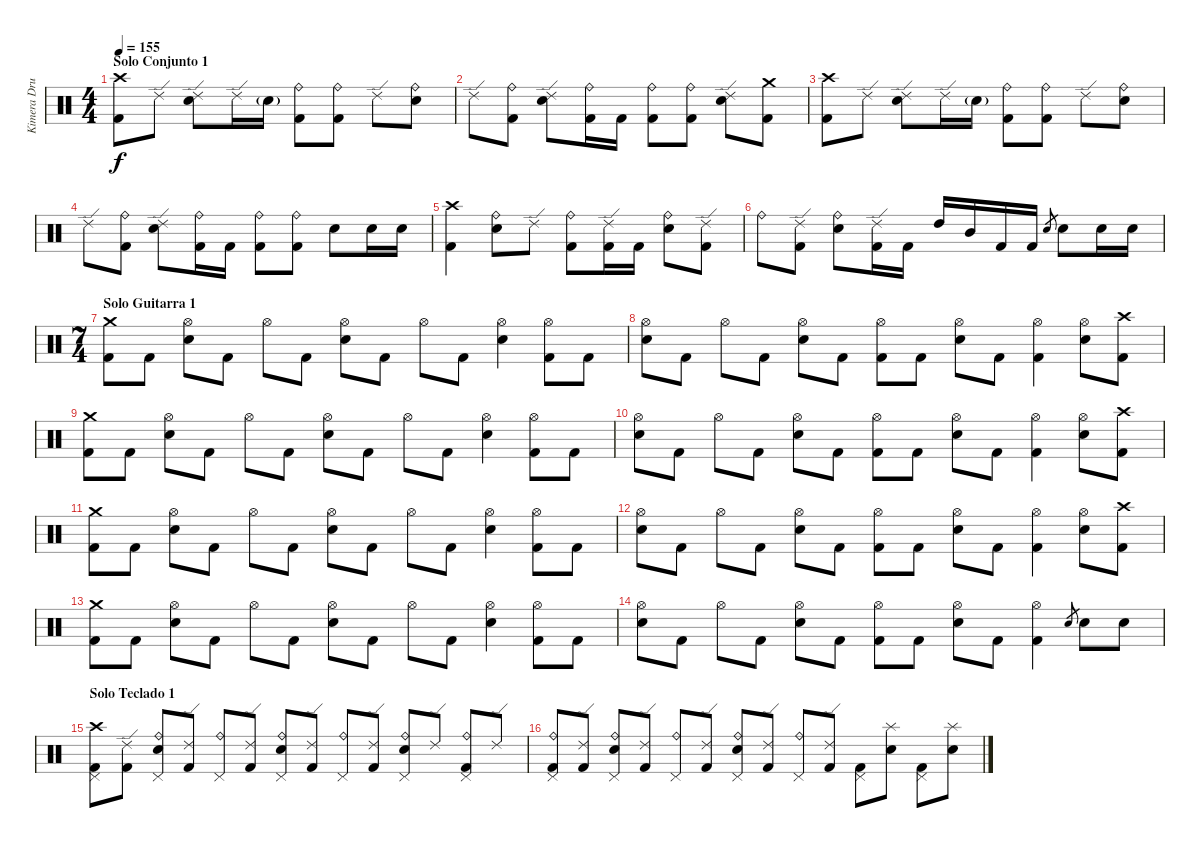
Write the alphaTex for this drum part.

\track ("Kimera Drummer" "Kimera Dru") {instrument percussion}
\staff {score}
\articulation defaults
\ts (4 4)
\section ("" "Solo Conjunto 1")
\tempo 155
\clef neutral
\ks c
("Crash high (hit)" "Kick (hit) 2").8{dy f} "Ride (edge) 2".8 ("Ride (edge) 2" "Electric Snare (hit)").8 "Ride (edge) 2".16 "Electric Snare (hit)"{g}.16 ("Ride (bell)" "Kick (hit) 2").8 ("Ride (bell)" "Kick (hit) 2").8 "Ride (edge) 2".8 ("Ride (bell)" "Electric Snare (hit)").8 |
"Ride (edge) 2".8 ("Ride (bell)" "Kick (hit) 2").8 ("Ride (edge) 2" "Electric Snare (hit)").8 ("Ride (bell)" "Kick (hit) 2").16 "Kick (hit) 2".16 ("Ride (bell)" "Kick (hit) 2").8 ("Ride (bell)" "Kick (hit) 2").8 ("Ride (edge) 2" "Electric Snare (hit)").8 ("Crash medium (hit)" "Kick (hit) 2").8 |
("Crash high (hit)" "Kick (hit) 2").8 "Ride (edge) 2".8 ("Ride (edge) 2" "Electric Snare (hit)").8 "Ride (edge) 2".16 "Electric Snare (hit)"{g}.16 ("Ride (bell)" "Kick (hit) 2").8 ("Ride (bell)" "Kick (hit) 2").8 "Ride (edge) 2".8 ("Ride (bell)" "Electric Snare (hit)").8 |
"Ride (edge) 2".8 ("Ride (bell)" "Kick (hit) 2").8 ("Ride (edge) 2" "Electric Snare (hit)").8 ("Ride (bell)" "Kick (hit) 2").16 "Kick (hit) 2".16 ("Ride (bell)" "Kick (hit) 2").8 ("Ride (bell)" "Kick (hit) 2").8 "Electric Snare (hit)".8 "Electric Snare (hit)".16 "Electric Snare (hit)".16 |
("Crash high (hit)" "Kick (hit) 2").4 ("Ride (bell)" "Electric Snare (hit)").8 "Ride (edge) 2".8 ("Ride (bell)" "Kick (hit) 2").8 ("Ride (edge) 2" "Kick (hit) 2").16 "Kick (hit) 2".16 ("Ride (bell)" "Electric Snare (hit)").8 ("Ride (edge) 2" "Kick (hit) 2").8 |
"Ride (bell)".8 ("Ride (edge) 2" "Kick (hit) 2").8 ("Ride (bell)" "Electric Snare (hit)").8 ("Ride (edge) 2" "Kick (hit) 2").16 "Kick (hit) 2".16 "High Tom (hit)".16 "Mid Tom (hit)".16 "Kick (hit) 2".16 "Kick (hit) 2".16 "Electric Snare (hit)".8{gr} "Electric Snare (hit)".8 "Electric Snare (hit)".16 "Electric Snare (hit)".16 |
\ts (7 4)
\section ("" "Solo Guitarra 1")
("Crash medium (hit)" "Kick (hit) 2").8 "Kick (hit) 2".8 ("Hi-Hat (open)" "Electric Snare (hit)").8 "Kick (hit) 2".8 "Hi-Hat (open)".8 "Kick (hit) 2".8 ("Hi-Hat (open)" "Electric Snare (hit)").8 "Kick (hit) 2".8 "Hi-Hat (open)".8 "Kick (hit) 2".8 ("Hi-Hat (open)" "Electric Snare (hit)").4 ("Hi-Hat (open)" "Kick (hit) 2").8 "Kick (hit) 2".8 |
("Hi-Hat (open)" "Electric Snare (hit)").8 "Kick (hit) 2".8 "Hi-Hat (open)".8 "Kick (hit) 2".8 ("Hi-Hat (open)" "Electric Snare (hit)").8 "Kick (hit) 2".8 ("Hi-Hat (open)" "Kick (hit) 2").8 "Kick (hit) 2".8 ("Hi-Hat (open)" "Electric Snare (hit)").8 "Kick (hit) 2".8 ("Hi-Hat (open)" "Kick (hit) 2").4 ("Hi-Hat (open)" "Electric Snare (hit)").8 ("Crash high (hit)" "Kick (hit) 2").8 |
("Crash medium (hit)" "Kick (hit) 2").8 "Kick (hit) 2".8 ("Hi-Hat (open)" "Electric Snare (hit)").8 "Kick (hit) 2".8 "Hi-Hat (open)".8 "Kick (hit) 2".8 ("Hi-Hat (open)" "Electric Snare (hit)").8 "Kick (hit) 2".8 "Hi-Hat (open)".8 "Kick (hit) 2".8 ("Hi-Hat (open)" "Electric Snare (hit)").4 ("Hi-Hat (open)" "Kick (hit) 2").8 "Kick (hit) 2".8 |
("Hi-Hat (open)" "Electric Snare (hit)").8 "Kick (hit) 2".8 "Hi-Hat (open)".8 "Kick (hit) 2".8 ("Hi-Hat (open)" "Electric Snare (hit)").8 "Kick (hit) 2".8 ("Hi-Hat (open)" "Kick (hit) 2").8 "Kick (hit) 2".8 ("Hi-Hat (open)" "Electric Snare (hit)").8 "Kick (hit) 2".8 ("Hi-Hat (open)" "Kick (hit) 2").4 ("Hi-Hat (open)" "Electric Snare (hit)").8 ("Crash high (hit)" "Kick (hit) 2").8 |
("Crash medium (hit)" "Kick (hit) 2").8 "Kick (hit) 2".8 ("Hi-Hat (open)" "Electric Snare (hit)").8 "Kick (hit) 2".8 "Hi-Hat (open)".8 "Kick (hit) 2".8 ("Hi-Hat (open)" "Electric Snare (hit)").8 "Kick (hit) 2".8 "Hi-Hat (open)".8 "Kick (hit) 2".8 ("Hi-Hat (open)" "Electric Snare (hit)").4 ("Hi-Hat (open)" "Kick (hit) 2").8 "Kick (hit) 2".8 |
("Hi-Hat (open)" "Electric Snare (hit)").8 "Kick (hit) 2".8 "Hi-Hat (open)".8 "Kick (hit) 2".8 ("Hi-Hat (open)" "Electric Snare (hit)").8 "Kick (hit) 2".8 ("Hi-Hat (open)" "Kick (hit) 2").8 "Kick (hit) 2".8 ("Hi-Hat (open)" "Electric Snare (hit)").8 "Kick (hit) 2".8 ("Hi-Hat (open)" "Kick (hit) 2").4 ("Hi-Hat (open)" "Electric Snare (hit)").8 ("Crash high (hit)" "Kick (hit) 2").8 |
("Crash medium (hit)" "Kick (hit) 2").8 "Kick (hit) 2".8 ("Hi-Hat (open)" "Electric Snare (hit)").8 "Kick (hit) 2".8 "Hi-Hat (open)".8 "Kick (hit) 2".8 ("Hi-Hat (open)" "Electric Snare (hit)").8 "Kick (hit) 2".8 "Hi-Hat (open)".8 "Kick (hit) 2".8 ("Hi-Hat (open)" "Electric Snare (hit)").4 ("Hi-Hat (open)" "Kick (hit) 2").8 "Kick (hit) 2".8 |
("Hi-Hat (open)" "Electric Snare (hit)").8 "Kick (hit) 2".8 "Hi-Hat (open)".8 "Kick (hit) 2".8 ("Hi-Hat (open)" "Electric Snare (hit)").8 "Kick (hit) 2".8 ("Hi-Hat (open)" "Kick (hit) 2").8 "Kick (hit) 2".8 ("Hi-Hat (open)" "Electric Snare (hit)").8 "Kick (hit) 2".8 ("Hi-Hat (open)" "Kick (hit) 2").4 "Electric Snare (hit)".8{gr} "Electric Snare (hit)".8 "Electric Snare (hit)".8 |
\section ("" "Solo Teclado 1")
("Crash high (hit)" "Pedal Hi-Hat (hit)" "Kick (hit) 2").8 ("Ride (edge) 2" "Kick (hit) 2").8 ("Ride (bell)" "Electric Snare (hit)" "Pedal Hi-Hat (hit)").8 ("Ride (edge) 2" "Kick (hit) 2").8 ("Ride (bell)" "Pedal Hi-Hat (hit)").8 ("Ride (edge) 2" "Kick (hit) 2").8 ("Ride (bell)" "Electric Snare (hit)" "Pedal Hi-Hat (hit)").8 ("Ride (edge) 2" "Kick (hit) 2").8 ("Ride (bell)" "Pedal Hi-Hat (hit)").8 ("Ride (edge) 2" "Kick (hit) 2").8 ("Ride (bell)" "Electric Snare (hit)" "Pedal Hi-Hat (hit)").8 "Ride (edge) 2".8 ("Ride (bell)" "Pedal Hi-Hat (hit)" "Kick (hit) 2").8 "Ride (edge) 2".8 |
("Ride (bell)" "Pedal Hi-Hat (hit)" "Kick (hit) 2").8 ("Ride (edge) 2" "Kick (hit) 2").8 ("Ride (bell)" "Electric Snare (hit)" "Pedal Hi-Hat (hit)").8 ("Ride (edge) 2" "Kick (hit) 2").8 ("Ride (bell)" "Pedal Hi-Hat (hit)").8 ("Ride (edge) 2" "Kick (hit) 2").8 ("Ride (bell)" "Electric Snare (hit)" "Pedal Hi-Hat (hit)").8 ("Ride (edge) 2" "Kick (hit) 2").8 ("Ride (bell)" "Pedal Hi-Hat (hit)").8 ("Ride (edge) 2" "Kick (hit) 2").8 ("Pedal Hi-Hat (hit)" "Kick (hit) 2").8 ("Splash (hit)" "Electric Snare (hit)").8 ("Pedal Hi-Hat (hit)" "Kick (hit) 2").8 ("Splash (hit)" "Electric Snare (hit)").8
